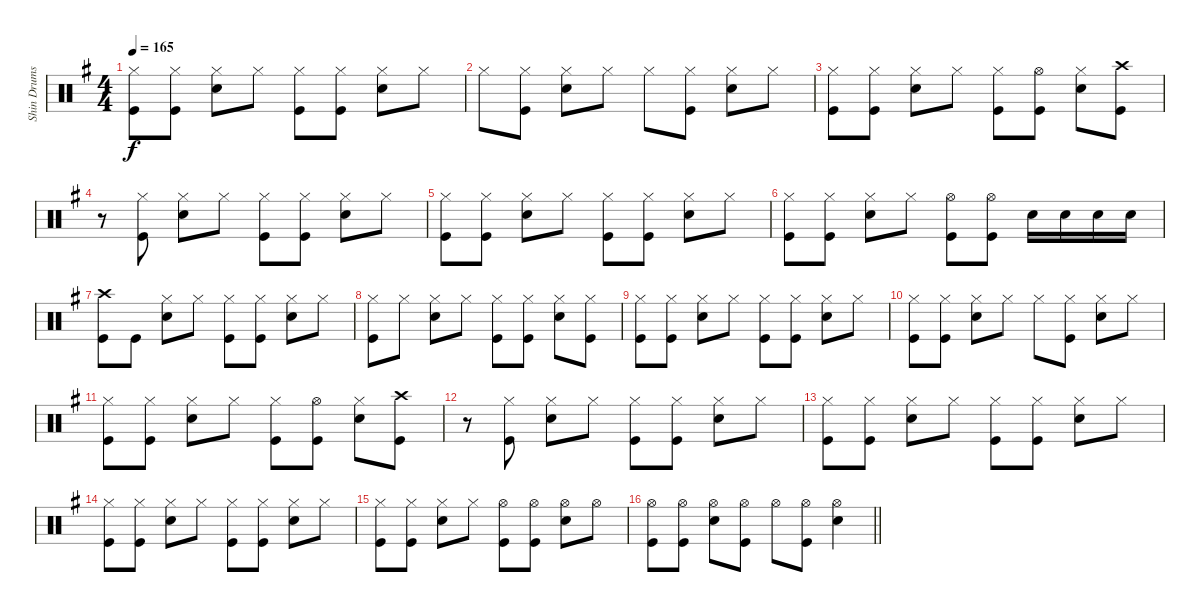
\track ("Shin Drums" "Shin Drums") {instrument percussion}
\staff {score}
\articulation defaults
\ts (4 4)
\tempo 165
\clef neutral
\ks g
("Hi-Hat (closed)" "Kick (hit)").8{dy f} ("Hi-Hat (closed)" "Kick (hit)").8 ("Hi-Hat (closed)" "Snare (hit) 2").8 "Hi-Hat (closed)".8 ("Hi-Hat (closed)" "Kick (hit)").8 ("Hi-Hat (closed)" "Kick (hit)").8 ("Hi-Hat (closed)" "Snare (hit) 2").8 "Hi-Hat (closed)".8 |
"Hi-Hat (closed)".8 ("Hi-Hat (closed)" "Kick (hit)").8 ("Hi-Hat (closed)" "Snare (hit) 2").8 "Hi-Hat (closed)".8 "Hi-Hat (closed)".8 ("Hi-Hat (closed)" "Kick (hit)").8 ("Hi-Hat (closed)" "Snare (hit) 2").8 "Hi-Hat (closed)".8 |
("Hi-Hat (closed)" "Kick (hit)").8 ("Hi-Hat (closed)" "Kick (hit)").8 ("Hi-Hat (closed)" "Snare (hit) 2").8 "Hi-Hat (closed)".8 ("Hi-Hat (closed)" "Kick (hit)").8 ("Hi-Hat (open)" "Kick (hit)").8 ("Hi-Hat (closed)" "Snare (hit) 2").8 ("Crash high (hit)" "Kick (hit)").8 |
r.8 ("Hi-Hat (closed)" "Kick (hit)").8 ("Hi-Hat (closed)" "Snare (hit) 2").8 "Hi-Hat (closed)".8 ("Hi-Hat (closed)" "Kick (hit)").8 ("Hi-Hat (closed)" "Kick (hit)").8 ("Hi-Hat (closed)" "Snare (hit) 2").8 "Hi-Hat (closed)".8 |
("Hi-Hat (closed)" "Kick (hit)").8 ("Hi-Hat (closed)" "Kick (hit)").8 ("Hi-Hat (closed)" "Snare (hit) 2").8 "Hi-Hat (closed)".8 ("Hi-Hat (closed)" "Kick (hit)").8 ("Hi-Hat (closed)" "Kick (hit)").8 ("Hi-Hat (closed)" "Snare (hit) 2").8 "Hi-Hat (closed)".8 |
("Hi-Hat (closed)" "Kick (hit)").8 ("Hi-Hat (closed)" "Kick (hit)").8 ("Hi-Hat (closed)" "Snare (hit) 2").8 "Hi-Hat (closed)".8 ("Hi-Hat (open)" "Kick (hit)").8 ("Hi-Hat (open)" "Kick (hit)").8 "Snare (hit) 2".16 "Snare (hit) 2".16 "Snare (hit) 2".16 "Snare (hit) 2".16 |
\ks g
("Crash high (hit)" "Kick (hit)").8 "Kick (hit)".8 ("Hi-Hat (closed)" "Snare (hit) 2").8 "Hi-Hat (closed)".8 ("Hi-Hat (closed)" "Kick (hit)").8 ("Hi-Hat (closed)" "Kick (hit)").8 ("Hi-Hat (closed)" "Snare (hit) 2").8 "Hi-Hat (closed)".8 |
\ks g
("Hi-Hat (closed)" "Kick (hit)").8 "Hi-Hat (closed)".8 ("Hi-Hat (closed)" "Snare (hit) 2").8 "Hi-Hat (closed)".8 ("Hi-Hat (closed)" "Kick (hit)").8 ("Hi-Hat (closed)" "Kick (hit)").8 ("Hi-Hat (closed)" "Snare (hit) 2").8 ("Hi-Hat (closed)" "Kick (hit)").8 |
("Hi-Hat (closed)" "Kick (hit)").8 ("Hi-Hat (closed)" "Kick (hit)").8 ("Hi-Hat (closed)" "Snare (hit) 2").8 "Hi-Hat (closed)".8 ("Hi-Hat (closed)" "Kick (hit)").8 ("Hi-Hat (closed)" "Kick (hit)").8 ("Hi-Hat (closed)" "Snare (hit) 2").8 "Hi-Hat (closed)".8 |
("Hi-Hat (closed)" "Kick (hit)").8 ("Hi-Hat (closed)" "Kick (hit)").8 ("Hi-Hat (closed)" "Snare (hit) 2").8 "Hi-Hat (closed)".8 "Hi-Hat (closed)".8 ("Hi-Hat (closed)" "Kick (hit)").8 ("Hi-Hat (closed)" "Snare (hit) 2").8 "Hi-Hat (closed)".8 |
("Hi-Hat (closed)" "Kick (hit)").8 ("Hi-Hat (closed)" "Kick (hit)").8 ("Hi-Hat (closed)" "Snare (hit) 2").8 "Hi-Hat (closed)".8 ("Hi-Hat (closed)" "Kick (hit)").8 ("Hi-Hat (open)" "Kick (hit)").8 ("Hi-Hat (closed)" "Snare (hit) 2").8 ("Crash high (hit)" "Kick (hit)").8 |
r.8 ("Hi-Hat (closed)" "Kick (hit)").8 ("Hi-Hat (closed)" "Snare (hit) 2").8 "Hi-Hat (closed)".8 ("Hi-Hat (closed)" "Kick (hit)").8 ("Hi-Hat (closed)" "Kick (hit)").8 ("Hi-Hat (closed)" "Snare (hit) 2").8 "Hi-Hat (closed)".8 |
("Hi-Hat (closed)" "Kick (hit)").8 ("Hi-Hat (closed)" "Kick (hit)").8 ("Hi-Hat (closed)" "Snare (hit) 2").8 "Hi-Hat (closed)".8 ("Hi-Hat (closed)" "Kick (hit)").8 ("Hi-Hat (closed)" "Kick (hit)").8 ("Hi-Hat (closed)" "Snare (hit) 2").8 "Hi-Hat (closed)".8 |
("Hi-Hat (closed)" "Kick (hit)").8 ("Hi-Hat (closed)" "Kick (hit)").8 ("Hi-Hat (closed)" "Snare (hit) 2").8 "Hi-Hat (closed)".8 ("Hi-Hat (closed)" "Kick (hit)").8 ("Hi-Hat (closed)" "Kick (hit)").8 ("Hi-Hat (closed)" "Snare (hit) 2").8 "Hi-Hat (closed)".8 |
("Hi-Hat (closed)" "Kick (hit)").8 ("Hi-Hat (closed)" "Kick (hit)").8 ("Hi-Hat (closed)" "Snare (hit) 2").8 "Hi-Hat (closed)".8 ("Hi-Hat (open)" "Kick (hit)").8 ("Hi-Hat (open)" "Kick (hit)").8 ("Hi-Hat (open)" "Snare (hit) 2").8 "Hi-Hat (open)".8 |
\barLineRight lightlight
("Hi-Hat (open)" "Kick (hit)").8 ("Hi-Hat (open)" "Kick (hit)").8 ("Hi-Hat (open)" "Snare (hit) 2").8 ("Hi-Hat (open)" "Kick (hit)").8 "Hi-Hat (open)".8 ("Hi-Hat (open)" "Kick (hit)").8 ("Hi-Hat (open)" "Snare (hit) 2").4
